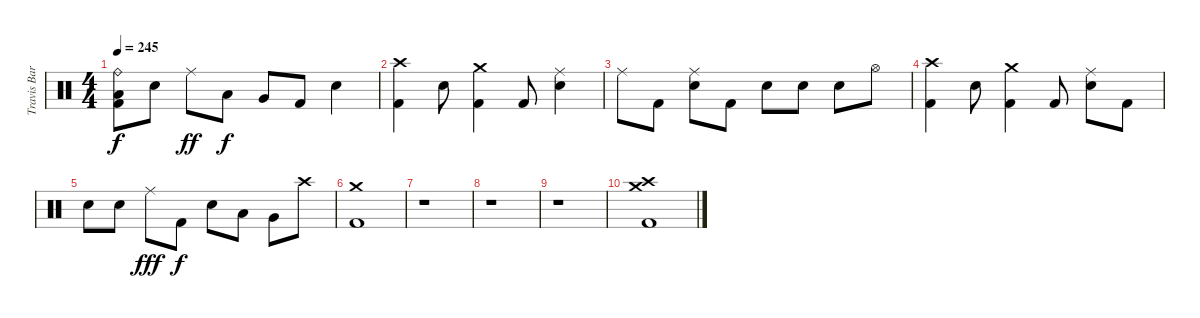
\track ("Travis Barker - Batería" "Travis Bar") {instrument percussion}
\staff {score}
\articulation defaults
\ts (4 4)
\tempo 245
\clef neutral
\ks c
("Ride (bell)" "Low Floor Tom (hit)" "Kick (hit) 2").8{dy f} "Electric Snare (hit)".8 "Ride (middle)".8{dy ff} "Low Tom (hit)".8{dy f} "Very Low Tom (hit)".8 "Kick (hit) 2".8 "Electric Snare (hit)".4 |
("Crash high (hit)" "Kick (hit) 2").4 "Electric Snare (hit)".8 ("Crash medium (hit)" "Kick (hit) 2").4 "Kick (hit) 2".8 ("Ride (middle)" "Electric Snare (hit)").4 |
"Ride (middle)".8 "Kick (hit) 2".8 ("Ride (middle)" "Electric Snare (hit)").8 "Kick (hit) 2".8 "Electric Snare (hit)".8 "Electric Snare (hit)".8 "Electric Snare (hit)".8 "Hi-Hat (open)".8 |
("Crash high (hit)" "Kick (hit) 2").4 "Electric Snare (hit)".8 ("Crash medium (hit)" "Kick (hit) 2").4 "Kick (hit) 2".8 ("Ride (middle)" "Electric Snare (hit)").8 "Kick (hit) 2".8 |
"Electric Snare (hit)".8 "Electric Snare (hit)".8 "Ride (middle)".8{dy fff} "Kick (hit) 2".8{dy f} "Electric Snare (hit)".8 "Low Tom (hit)".8 "Very Low Tom (hit)".8 "Crash high (hit)".8 |
("Crash medium (hit)" "Kick (hit) 2").1 |
r.1 |
r.1 |
r.1 |
("Crash medium (hit)" "Crash high (hit)" "Kick (hit) 2").1
